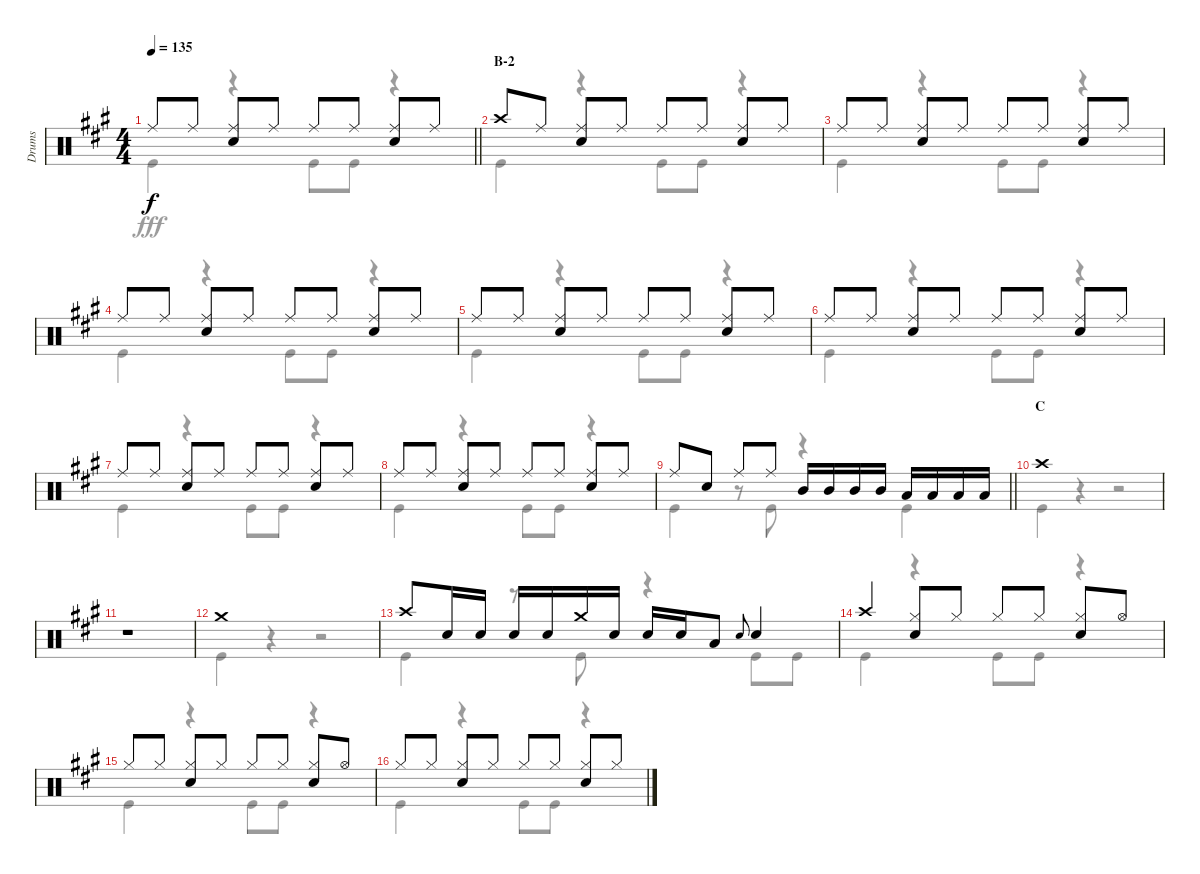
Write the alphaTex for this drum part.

\track ("Drums" "Drums") {instrument percussion}
\staff {score}
\articulation defaults
\voice
\ts (4 4)
\tempo 135
\clef neutral
\barLineRight lightlight
\ks a "Ride (middle)".8{dy f} "Ride (middle)".8
("Ride (middle)" "Snare (hit) 2").8 "Ride (middle)".8 "Ride (middle)".8 "Ride (middle)".8 ("Ride (middle)" "Snare (hit) 2").8 "Ride (middle)".8 |
\section ("" "B-2")
"Crash high (hit)".8 "Ride (middle)".8 ("Ride (middle)" "Snare (hit) 2").8 "Ride (middle)".8 "Ride (middle)".8 "Ride (middle)".8 ("Ride (middle)" "Snare (hit) 2").8 "Ride (middle)".8 |
"Ride (middle)".8 "Ride (middle)".8 ("Ride (middle)" "Snare (hit) 2").8 "Ride (middle)".8 "Ride (middle)".8 "Ride (middle)".8 ("Ride (middle)" "Snare (hit) 2").8 "Ride (middle)".8 |
"Ride (middle)".8 "Ride (middle)".8 ("Ride (middle)" "Snare (hit) 2").8 "Ride (middle)".8 "Ride (middle)".8 "Ride (middle)".8 ("Ride (middle)" "Snare (hit) 2").8 "Ride (middle)".8 |
"Ride (middle)".8 "Ride (middle)".8 ("Ride (middle)" "Snare (hit) 2").8 "Ride (middle)".8 "Ride (middle)".8 "Ride (middle)".8 ("Ride (middle)" "Snare (hit) 2").8 "Ride (middle)".8 |
"Ride (middle)".8 "Ride (middle)".8 ("Ride (middle)" "Snare (hit) 2").8 "Ride (middle)".8 "Ride (middle)".8 "Ride (middle)".8 ("Ride (middle)" "Snare (hit) 2").8 "Ride (middle)".8 |
"Ride (middle)".8 "Ride (middle)".8 ("Ride (middle)" "Snare (hit) 2").8 "Ride (middle)".8 "Ride (middle)".8 "Ride (middle)".8 ("Ride (middle)" "Snare (hit) 2").8 "Ride (middle)".8 |
"Ride (middle)".8 "Ride (middle)".8 ("Ride (middle)" "Snare (hit) 2").8 "Ride (middle)".8 "Ride (middle)".8 "Ride (middle)".8 ("Ride (middle)" "Snare (hit) 2").8 "Ride (middle)".8 |
\barLineRight lightlight "Ride (middle)".8 "Snare (hit) 2".8 "Ride (middle)".8 "Ride (middle)".8 "Mid Tom (hit)".16 "Mid Tom (hit)".16 "Mid Tom (hit)".16 "Mid Tom (hit)".16 "Low Tom (hit)".16 "Low Tom (hit)".16 "Low Tom (hit)".16 "Low Tom (hit)".16
|
\section ("" "C")
"Crash high (hit)".1 |
r.1 |
"Crash medium (hit)".1 |
"Crash high (hit)".8 "Snare (hit) 2".16 "Snare (hit) 2".16 "Snare (hit) 2".16 "Snare (hit) 2".16 "Crash medium (hit)".16 "Snare (hit) 2".16 "Snare (hit) 2".16 "Snare (hit) 2".16 "Low Tom (hit)".8 "Snare (hit) 2".8{gr onbeat} "Snare (hit) 2".4 |
"Crash high (hit)".4 ("Hi-Hat (closed)" "Snare (hit) 2").8 "Hi-Hat (closed)".8 "Hi-Hat (closed)".8 "Hi-Hat (closed)".8 ("Hi-Hat (closed)" "Snare (hit) 2").8 "Hi-Hat (open)".8 |
"Hi-Hat (closed)".8 "Hi-Hat (closed)".8 ("Hi-Hat (closed)" "Snare (hit) 2").8 "Hi-Hat (closed)".8 "Hi-Hat (closed)".8 "Hi-Hat (closed)".8 ("Hi-Hat (closed)" "Snare (hit) 2").8 "Hi-Hat (open)".8 |
"Hi-Hat (closed)".8 "Hi-Hat (closed)".8 ("Hi-Hat (closed)" "Snare (hit) 2").8 "Hi-Hat (closed)".8 "Hi-Hat (closed)".8 "Hi-Hat (closed)".8 ("Hi-Hat (closed)" "Snare (hit) 2").8 "Hi-Hat (closed)".8
\voice
\clef neutral
\ottava regular
\simile none
\barLineRight lightlight
\ks a "Kick (hit)".4{dy fff}
r.4 "Kick (hit)".8 "Kick (hit)".8 r.4 |
"Kick (hit)".4 r.4 "Kick (hit)".8 "Kick (hit)".8 r.4 |
"Kick (hit)".4 r.4 "Kick (hit)".8 "Kick (hit)".8 r.4 |
"Kick (hit)".4 r.4 "Kick (hit)".8 "Kick (hit)".8 r.4 |
"Kick (hit)".4 r.4 "Kick (hit)".8 "Kick (hit)".8 r.4 |
"Kick (hit)".4 r.4 "Kick (hit)".8 "Kick (hit)".8 r.4 |
"Kick (hit)".4 r.4 "Kick (hit)".8 "Kick (hit)".8 r.4 |
"Kick (hit)".4 r.4 "Kick (hit)".8 "Kick (hit)".8 r.4 |
\barLineRight lightlight "Kick (hit)".4
r.8 "Kick (hit)".8 r.4 "Kick (hit)".4 |
"Kick (hit)".4 r.4 r.2 |
r.1 |
"Kick (hit)".4 r.4 r.2 |
"Kick (hit)".4 r.8 "Kick (hit)".8 r.4 "Kick (hit)".8 "Kick (hit)".8 |
"Kick (hit)".4 r.4 "Kick (hit)".8 "Kick (hit)".8 r.4 |
"Kick (hit)".4 r.4 "Kick (hit)".8 "Kick (hit)".8 r.4 |
"Kick (hit)".4 r.4 "Kick (hit)".8 "Kick (hit)".8 r.4
